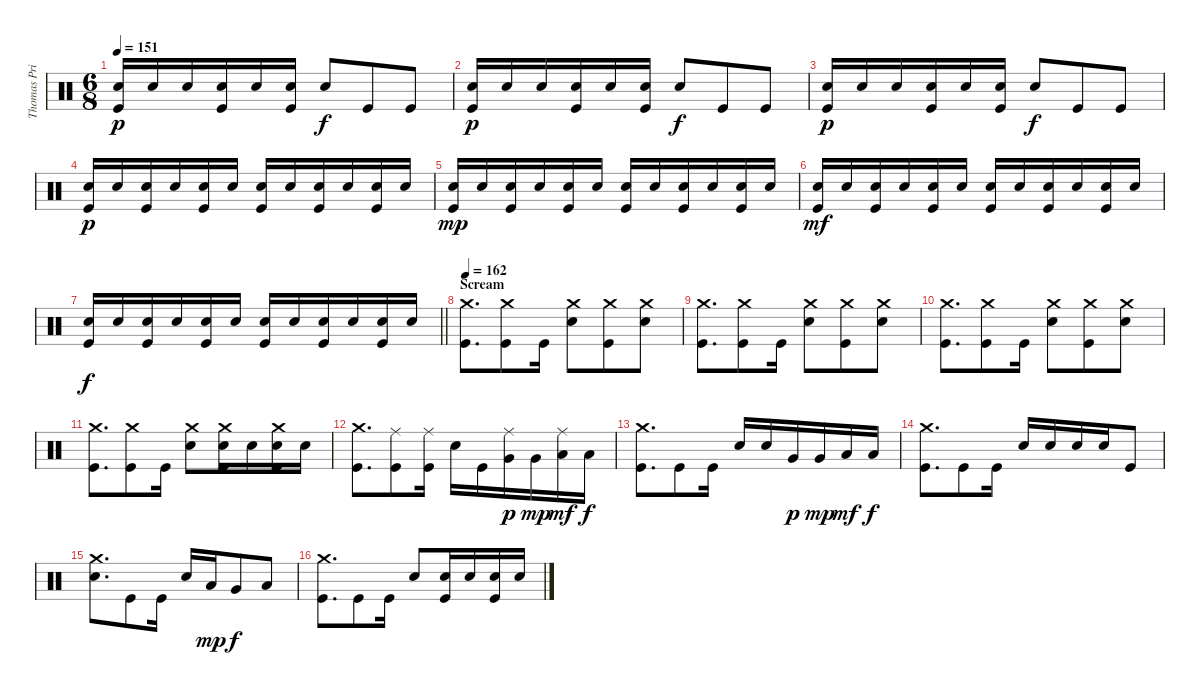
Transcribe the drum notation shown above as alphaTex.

\track ("Thomas Pridgen" "Thomas Pri") {instrument percussion}
\staff {score}
\articulation defaults
\ts (6 8)
\tempo 151
\clef neutral
\ks c
("Snare (hit) 2" "Kick (hit)").16{dy p} "Snare (hit) 2".16 "Snare (hit) 2".16 ("Snare (hit) 2" "Kick (hit)").16 "Snare (hit) 2".16 ("Snare (hit) 2" "Kick (hit)").16 "Snare (hit) 2".8{dy f} "Kick (hit)".8 "Kick (hit)".8 |
("Snare (hit) 2" "Kick (hit)").16{dy p} "Snare (hit) 2".16 "Snare (hit) 2".16 ("Snare (hit) 2" "Kick (hit)").16 "Snare (hit) 2".16 ("Snare (hit) 2" "Kick (hit)").16 "Snare (hit) 2".8{dy f} "Kick (hit)".8 "Kick (hit)".8 |
("Snare (hit) 2" "Kick (hit)").16{dy p} "Snare (hit) 2".16 "Snare (hit) 2".16 ("Snare (hit) 2" "Kick (hit)").16 "Snare (hit) 2".16 ("Snare (hit) 2" "Kick (hit)").16 "Snare (hit) 2".8{dy f} "Kick (hit)".8 "Kick (hit)".8 |
("Snare (hit) 2" "Kick (hit)").16{dy p} "Snare (hit) 2".16 ("Snare (hit) 2" "Kick (hit)").16 "Snare (hit) 2".16 ("Snare (hit) 2" "Kick (hit)").16 "Snare (hit) 2".16 ("Snare (hit) 2" "Kick (hit)").16 "Snare (hit) 2".16 ("Snare (hit) 2" "Kick (hit)").16 "Snare (hit) 2".16 ("Snare (hit) 2" "Kick (hit)").16 "Snare (hit) 2".16 |
("Snare (hit) 2" "Kick (hit)").16{dy mp} "Snare (hit) 2".16 ("Snare (hit) 2" "Kick (hit)").16 "Snare (hit) 2".16 ("Snare (hit) 2" "Kick (hit)").16 "Snare (hit) 2".16 ("Snare (hit) 2" "Kick (hit)").16 "Snare (hit) 2".16 ("Snare (hit) 2" "Kick (hit)").16 "Snare (hit) 2".16 ("Snare (hit) 2" "Kick (hit)").16 "Snare (hit) 2".16 |
("Snare (hit) 2" "Kick (hit)").16{dy mf} "Snare (hit) 2".16 ("Snare (hit) 2" "Kick (hit)").16 "Snare (hit) 2".16 ("Snare (hit) 2" "Kick (hit)").16 "Snare (hit) 2".16 ("Snare (hit) 2" "Kick (hit)").16 "Snare (hit) 2".16 ("Snare (hit) 2" "Kick (hit)").16 "Snare (hit) 2".16 ("Snare (hit) 2" "Kick (hit)").16 "Snare (hit) 2".16 |
\barLineRight lightlight
("Snare (hit) 2" "Kick (hit)").16{dy f} "Snare (hit) 2".16 ("Snare (hit) 2" "Kick (hit)").16 "Snare (hit) 2".16 ("Snare (hit) 2" "Kick (hit)").16 "Snare (hit) 2".16 ("Snare (hit) 2" "Kick (hit)").16 "Snare (hit) 2".16 ("Snare (hit) 2" "Kick (hit)").16 "Snare (hit) 2".16 ("Snare (hit) 2" "Kick (hit)").16 "Snare (hit) 2".16 |
\section ("" "Scream")
\tempo 162
("Crash medium (hit)" "Kick (hit)").8{d} ("Crash medium (hit)" "Kick (hit)").8 "Kick (hit)".16 ("Crash medium (hit)" "Snare (hit) 2").8 ("Crash medium (hit)" "Kick (hit)").8 ("Crash medium (hit)" "Snare (hit) 2").8 |
("Crash medium (hit)" "Kick (hit)").8{d} ("Crash medium (hit)" "Kick (hit)").8 "Kick (hit)".16 ("Crash medium (hit)" "Snare (hit) 2").8 ("Crash medium (hit)" "Kick (hit)").8 ("Crash medium (hit)" "Snare (hit) 2").8 |
("Crash medium (hit)" "Kick (hit)").8{d} ("Crash medium (hit)" "Kick (hit)").8 "Kick (hit)".16 ("Crash medium (hit)" "Snare (hit) 2").8 ("Crash medium (hit)" "Kick (hit)").8 ("Crash medium (hit)" "Snare (hit) 2").8 |
("Crash medium (hit)" "Kick (hit)").8{d} ("Crash medium (hit)" "Kick (hit)").8 "Kick (hit)".16 ("Crash medium (hit)" "Snare (hit) 2").8 ("Crash medium (hit)" "Snare (hit) 2" "Kick (hit)").16 "Snare (hit) 2".16 ("Crash medium (hit)" "Snare (hit) 2" "Kick (hit)").16 "Snare (hit) 2".16 |
("Crash medium (hit)" "Kick (hit)").8{d} ("Ride (middle)" "Kick (hit)").8 ("Ride (middle)" "Kick (hit)").16 "Snare (hit) 2".16 "Kick (hit)".16 ("Ride (middle)" "Very Low Tom (hit)").16{dy p} "Very Low Tom (hit)".16{dy mp} ("Ride (middle)" "Low Floor Tom (hit)").16{dy mf} "Low Floor Tom (hit)".16{dy f} |
("Crash medium (hit)" "Kick (hit)").8{d} "Kick (hit)".8 "Kick (hit)".16 "Snare (hit) 2".16 "Snare (hit) 2".16 "Very Low Tom (hit)".16{dy p} "Very Low Tom (hit)".16{dy mp} "Low Floor Tom (hit)".16{dy mf} "Low Floor Tom (hit)".16{dy f} |
("Crash medium (hit)" "Kick (hit)").8{d} "Kick (hit)".8 "Kick (hit)".16 "Snare (hit) 2".16 "Snare (hit) 2".16 "Snare (hit) 2".16 "Snare (hit) 2".16 "Kick (hit)".8 |
("Crash medium (hit)" "Snare (hit) 2").8{d} "Kick (hit)".8 "Kick (hit)".16 "Snare (hit) 2".16 "Low Tom (hit)".16{dy mp} "Very Low Tom (hit)".8{dy f} "Low Floor Tom (hit)".8 |
("Crash medium (hit)" "Kick (hit)").8{d} "Kick (hit)".8 "Kick (hit)".16 "Snare (hit) 2".8 ("Snare (hit) 2" "Kick (hit)").16 "Snare (hit) 2".16 ("Snare (hit) 2" "Kick (hit)").16 "Snare (hit) 2".16
